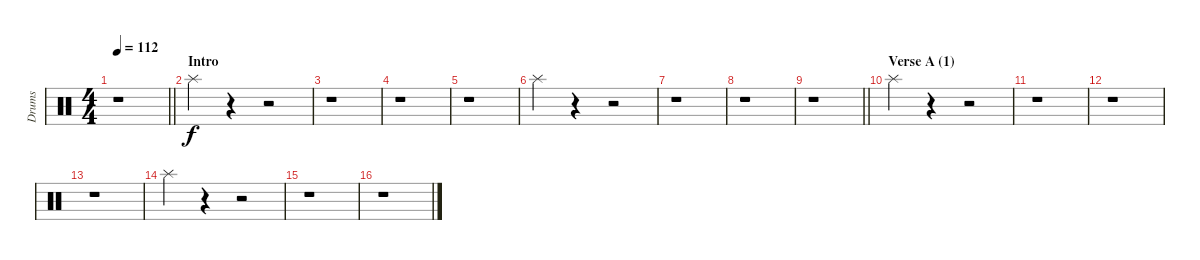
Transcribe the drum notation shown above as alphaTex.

\track ("Drums" "Drums") {instrument percussion}
\staff {score}
\articulation defaults
\ts (4 4)
\tempo 112
\clef neutral
\barLineRight lightlight
\ks c
r.1{dy f} |
\section ("" "Intro")
"Splash (hit)".4 r.4 r.2 |
r.1 |
r.1 |
r.1 |
"Splash (hit)".4 r.4 r.2 |
r.1 |
r.1 |
\barLineRight lightlight
r.1 |
\section ("" "Verse A (1)")
"Splash (hit)".4 r.4 r.2 |
r.1 |
r.1 |
r.1 |
"Splash (hit)".4 r.4 r.2 |
r.1 |
r.1
